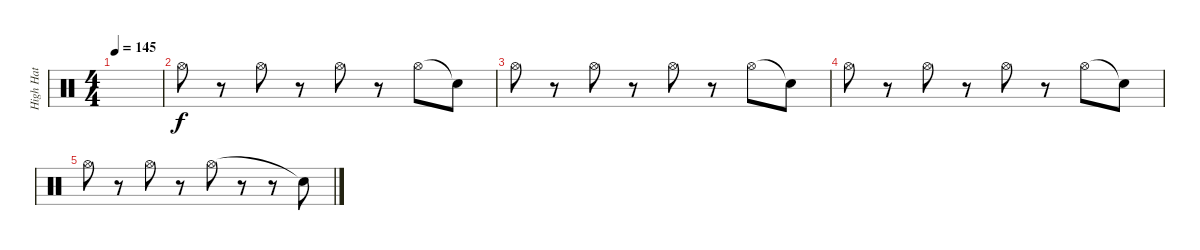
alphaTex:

\track ("High Hat" "High Hat") {instrument percussion}
\staff {score}
\articulation defaults
\ts (4 4)
\tempo 145
\clef neutral
\ks c
|
"Hi-Hat (open)".8 r.8 "Hi-Hat (open)".8 r.8 "Hi-Hat (open)".8 r.8 "Hi-Hat (open)".8 "Snare (hit)"{t}.8 |
"Hi-Hat (open)".8 r.8 "Hi-Hat (open)".8 r.8 "Hi-Hat (open)".8 r.8 "Hi-Hat (open)".8 "Snare (hit)"{t}.8 |
"Hi-Hat (open)".8 r.8 "Hi-Hat (open)".8 r.8 "Hi-Hat (open)".8 r.8 "Hi-Hat (open)".8 "Snare (hit)"{t}.8 |
"Hi-Hat (open)".8 r.8 "Hi-Hat (open)".8 r.8 "Hi-Hat (open)".8 r.8 r.8 "Snare (hit)"{t}.8
